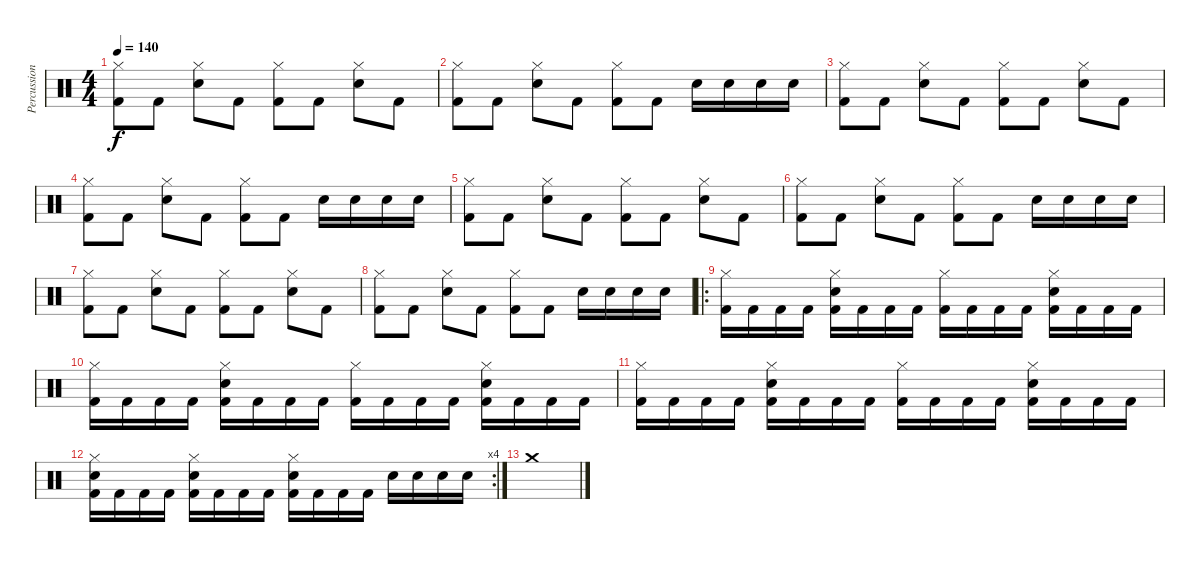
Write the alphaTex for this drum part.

\track ("Percussion" "Percussion") {instrument percussion}
\staff {score}
\articulation defaults
\ts (4 4)
\tempo 140
\clef neutral
\ks c
("Hi-Hat (closed)" "Kick (hit) 2").8{dy f} "Kick (hit) 2".8 ("Hi-Hat (closed)" "Electric Snare (hit)").8 "Kick (hit) 2".8 ("Hi-Hat (closed)" "Kick (hit) 2").8 "Kick (hit) 2".8 ("Hi-Hat (closed)" "Electric Snare (hit)").8 "Kick (hit) 2".8 |
("Hi-Hat (closed)" "Kick (hit) 2").8 "Kick (hit) 2".8 ("Hi-Hat (closed)" "Electric Snare (hit)").8 "Kick (hit) 2".8 ("Hi-Hat (closed)" "Kick (hit) 2").8 "Kick (hit) 2".8 "Electric Snare (hit)".16 "Electric Snare (hit)".16 "Electric Snare (hit)".16 "Electric Snare (hit)".16 |
("Hi-Hat (closed)" "Kick (hit) 2").8 "Kick (hit) 2".8 ("Hi-Hat (closed)" "Electric Snare (hit)").8 "Kick (hit) 2".8 ("Hi-Hat (closed)" "Kick (hit) 2").8 "Kick (hit) 2".8 ("Hi-Hat (closed)" "Electric Snare (hit)").8 "Kick (hit) 2".8 |
("Hi-Hat (closed)" "Kick (hit) 2").8 "Kick (hit) 2".8 ("Hi-Hat (closed)" "Electric Snare (hit)").8 "Kick (hit) 2".8 ("Hi-Hat (closed)" "Kick (hit) 2").8 "Kick (hit) 2".8 "Electric Snare (hit)".16 "Electric Snare (hit)".16 "Electric Snare (hit)".16 "Electric Snare (hit)".16 |
("Hi-Hat (closed)" "Kick (hit) 2").8 "Kick (hit) 2".8 ("Hi-Hat (closed)" "Electric Snare (hit)").8 "Kick (hit) 2".8 ("Hi-Hat (closed)" "Kick (hit) 2").8 "Kick (hit) 2".8 ("Hi-Hat (closed)" "Electric Snare (hit)").8 "Kick (hit) 2".8 |
("Hi-Hat (closed)" "Kick (hit) 2").8 "Kick (hit) 2".8 ("Hi-Hat (closed)" "Electric Snare (hit)").8 "Kick (hit) 2".8 ("Hi-Hat (closed)" "Kick (hit) 2").8 "Kick (hit) 2".8 "Electric Snare (hit)".16 "Electric Snare (hit)".16 "Electric Snare (hit)".16 "Electric Snare (hit)".16 |
("Hi-Hat (closed)" "Kick (hit) 2").8 "Kick (hit) 2".8 ("Hi-Hat (closed)" "Electric Snare (hit)").8 "Kick (hit) 2".8 ("Hi-Hat (closed)" "Kick (hit) 2").8 "Kick (hit) 2".8 ("Hi-Hat (closed)" "Electric Snare (hit)").8 "Kick (hit) 2".8 |
("Hi-Hat (closed)" "Kick (hit) 2").8 "Kick (hit) 2".8 ("Hi-Hat (closed)" "Electric Snare (hit)").8 "Kick (hit) 2".8 ("Hi-Hat (closed)" "Kick (hit) 2").8 "Kick (hit) 2".8 "Electric Snare (hit)".16 "Electric Snare (hit)".16 "Electric Snare (hit)".16 "Electric Snare (hit)".16 |
\ro
("Hi-Hat (closed)" "Kick (hit) 2").16 "Kick (hit) 2".16 "Kick (hit) 2".16 "Kick (hit) 2".16 ("Electric Snare (hit)" "Hi-Hat (closed)" "Kick (hit) 2").16 "Kick (hit) 2".16 "Kick (hit) 2".16 "Kick (hit) 2".16 ("Hi-Hat (closed)" "Kick (hit) 2").16 "Kick (hit) 2".16 "Kick (hit) 2".16 "Kick (hit) 2".16 ("Electric Snare (hit)" "Hi-Hat (closed)" "Kick (hit) 2").16 "Kick (hit) 2".16 "Kick (hit) 2".16 "Kick (hit) 2".16 |
("Hi-Hat (closed)" "Kick (hit) 2").16 "Kick (hit) 2".16 "Kick (hit) 2".16 "Kick (hit) 2".16 ("Electric Snare (hit)" "Hi-Hat (closed)" "Kick (hit) 2").16 "Kick (hit) 2".16 "Kick (hit) 2".16 "Kick (hit) 2".16 ("Hi-Hat (closed)" "Kick (hit) 2").16 "Kick (hit) 2".16 "Kick (hit) 2".16 "Kick (hit) 2".16 ("Electric Snare (hit)" "Hi-Hat (closed)" "Kick (hit) 2").16 "Kick (hit) 2".16 "Kick (hit) 2".16 "Kick (hit) 2".16 |
("Hi-Hat (closed)" "Kick (hit) 2").16 "Kick (hit) 2".16 "Kick (hit) 2".16 "Kick (hit) 2".16 ("Electric Snare (hit)" "Hi-Hat (closed)" "Kick (hit) 2").16 "Kick (hit) 2".16 "Kick (hit) 2".16 "Kick (hit) 2".16 ("Hi-Hat (closed)" "Kick (hit) 2").16 "Kick (hit) 2".16 "Kick (hit) 2".16 "Kick (hit) 2".16 ("Electric Snare (hit)" "Hi-Hat (closed)" "Kick (hit) 2").16 "Kick (hit) 2".16 "Kick (hit) 2".16 "Kick (hit) 2".16 |
\rc 4
("Electric Snare (hit)" "Hi-Hat (closed)" "Kick (hit) 2").16 "Kick (hit) 2".16 "Kick (hit) 2".16 "Kick (hit) 2".16 ("Electric Snare (hit)" "Hi-Hat (closed)" "Kick (hit) 2").16 "Kick (hit) 2".16 "Kick (hit) 2".16 "Kick (hit) 2".16 ("Electric Snare (hit)" "Hi-Hat (closed)" "Kick (hit) 2").16 "Kick (hit) 2".16 "Kick (hit) 2".16 "Kick (hit) 2".16 "Electric Snare (hit)".16 "Electric Snare (hit)".16 "Electric Snare (hit)".16 "Electric Snare (hit)".16 |
"Crash medium (hit)".1
